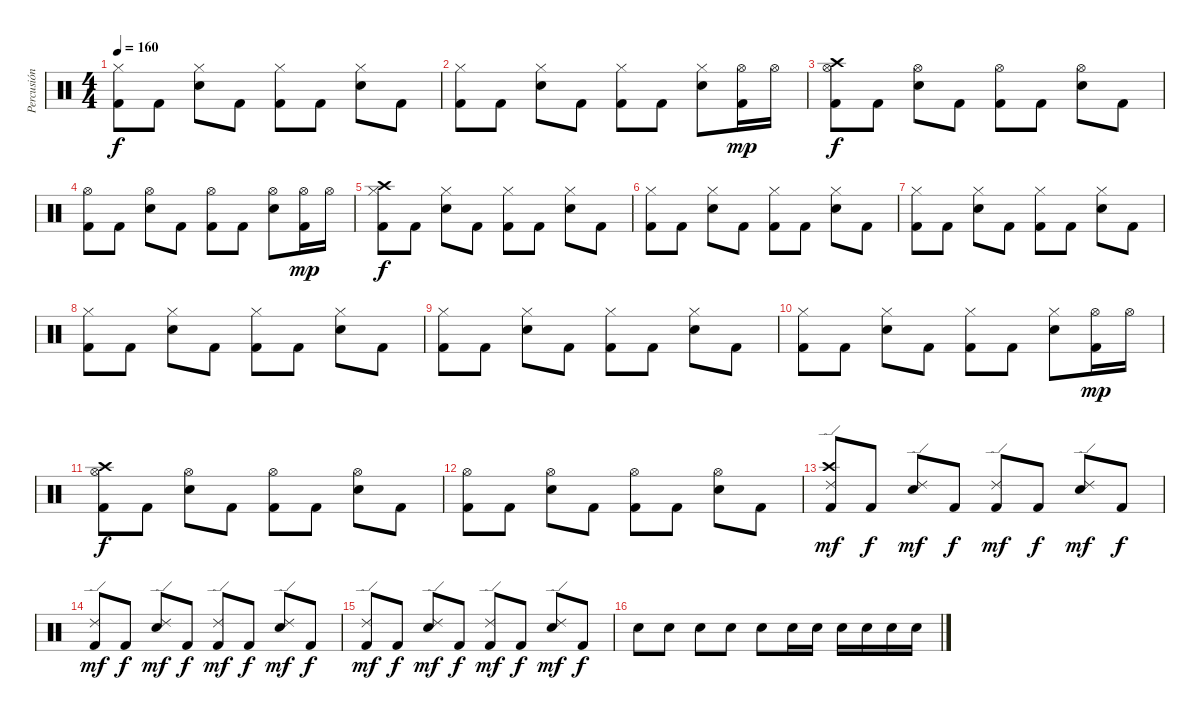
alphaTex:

\track ("Percusión" "Percusión") {instrument percussion}
\staff {score}
\articulation defaults
\ts (4 4)
\tempo 160
\clef neutral
\ks c
("Hi-Hat (closed)" "Kick (hit) 2").8{dy f} "Kick (hit) 2".8 ("Hi-Hat (closed)" "Snare (hit) 2").8 "Kick (hit) 2".8 ("Hi-Hat (closed)" "Kick (hit) 2").8 "Kick (hit) 2".8 ("Hi-Hat (closed)" "Snare (hit) 2").8 "Kick (hit) 2".8 |
("Hi-Hat (closed)" "Kick (hit) 2").8 "Kick (hit) 2".8 ("Hi-Hat (closed)" "Snare (hit) 2").8 "Kick (hit) 2".8 ("Hi-Hat (closed)" "Kick (hit) 2").8 "Kick (hit) 2".8 ("Hi-Hat (closed)" "Snare (hit) 2").8 ("Hi-Hat (open)" "Kick (hit) 2").16{dy mp} "Hi-Hat (open)".16 |
("Crash high (hit)" "Hi-Hat (open)" "Kick (hit) 2").8{dy f} "Kick (hit) 2".8 ("Hi-Hat (open)" "Snare (hit) 2").8 "Kick (hit) 2".8 ("Hi-Hat (open)" "Kick (hit) 2").8 "Kick (hit) 2".8 ("Hi-Hat (open)" "Snare (hit) 2").8 "Kick (hit) 2".8 |
("Hi-Hat (open)" "Kick (hit) 2").8 "Kick (hit) 2".8 ("Hi-Hat (open)" "Snare (hit) 2").8 "Kick (hit) 2".8 ("Hi-Hat (open)" "Kick (hit) 2").8 "Kick (hit) 2".8 ("Hi-Hat (open)" "Snare (hit) 2").8 ("Hi-Hat (open)" "Kick (hit) 2").16{dy mp} "Hi-Hat (open)".16 |
("Crash high (hit)" "Hi-Hat (closed)" "Kick (hit) 2").8{dy f} "Kick (hit) 2".8 ("Hi-Hat (closed)" "Snare (hit) 2").8 "Kick (hit) 2".8 ("Hi-Hat (closed)" "Kick (hit) 2").8 "Kick (hit) 2".8 ("Hi-Hat (closed)" "Snare (hit) 2").8 "Kick (hit) 2".8 |
("Hi-Hat (closed)" "Kick (hit) 2").8 "Kick (hit) 2".8 ("Hi-Hat (closed)" "Snare (hit) 2").8 "Kick (hit) 2".8 ("Hi-Hat (closed)" "Kick (hit) 2").8 "Kick (hit) 2".8 ("Hi-Hat (closed)" "Snare (hit) 2").8 "Kick (hit) 2".8 |
("Hi-Hat (closed)" "Kick (hit) 2").8 "Kick (hit) 2".8 ("Hi-Hat (closed)" "Snare (hit) 2").8 "Kick (hit) 2".8 ("Hi-Hat (closed)" "Kick (hit) 2").8 "Kick (hit) 2".8 ("Hi-Hat (closed)" "Snare (hit) 2").8 "Kick (hit) 2".8 |
("Hi-Hat (closed)" "Kick (hit) 2").8 "Kick (hit) 2".8 ("Hi-Hat (closed)" "Snare (hit) 2").8 "Kick (hit) 2".8 ("Hi-Hat (closed)" "Kick (hit) 2").8 "Kick (hit) 2".8 ("Hi-Hat (closed)" "Snare (hit) 2").8 "Kick (hit) 2".8 |
("Hi-Hat (closed)" "Kick (hit) 2").8 "Kick (hit) 2".8 ("Hi-Hat (closed)" "Snare (hit) 2").8 "Kick (hit) 2".8 ("Hi-Hat (closed)" "Kick (hit) 2").8 "Kick (hit) 2".8 ("Hi-Hat (closed)" "Snare (hit) 2").8 "Kick (hit) 2".8 |
("Hi-Hat (closed)" "Kick (hit) 2").8 "Kick (hit) 2".8 ("Hi-Hat (closed)" "Snare (hit) 2").8 "Kick (hit) 2".8 ("Hi-Hat (closed)" "Kick (hit) 2").8 "Kick (hit) 2".8 ("Hi-Hat (closed)" "Snare (hit) 2").8 ("Hi-Hat (open)" "Kick (hit) 2").16{dy mp} "Hi-Hat (open)".16 |
("Crash high (hit)" "Hi-Hat (open)" "Kick (hit) 2").8{dy f} "Kick (hit) 2".8 ("Hi-Hat (open)" "Snare (hit) 2").8 "Kick (hit) 2".8 ("Hi-Hat (open)" "Kick (hit) 2").8 "Kick (hit) 2".8 ("Hi-Hat (open)" "Snare (hit) 2").8 "Kick (hit) 2".8 |
("Hi-Hat (open)" "Kick (hit) 2").8 "Kick (hit) 2".8 ("Hi-Hat (open)" "Snare (hit) 2").8 "Kick (hit) 2".8 ("Hi-Hat (open)" "Kick (hit) 2").8 "Kick (hit) 2".8 ("Hi-Hat (open)" "Snare (hit) 2").8 "Kick (hit) 2".8 |
("Crash high (hit)" "Ride (edge) 2" "Kick (hit) 2").8{dy mf} "Kick (hit) 2".8{dy f} ("Ride (edge) 2" "Snare (hit) 2").8{dy mf} "Kick (hit) 2".8{dy f} ("Ride (edge) 2" "Kick (hit) 2").8{dy mf} "Kick (hit) 2".8{dy f} ("Ride (edge) 2" "Snare (hit) 2").8{dy mf} "Kick (hit) 2".8{dy f} |
("Ride (edge) 2" "Kick (hit) 2").8{dy mf} "Kick (hit) 2".8{dy f} ("Ride (edge) 2" "Snare (hit) 2").8{dy mf} "Kick (hit) 2".8{dy f} ("Ride (edge) 2" "Kick (hit) 2").8{dy mf} "Kick (hit) 2".8{dy f} ("Ride (edge) 2" "Snare (hit) 2").8{dy mf} "Kick (hit) 2".8{dy f} |
("Ride (edge) 2" "Kick (hit) 2").8{dy mf} "Kick (hit) 2".8{dy f} ("Ride (edge) 2" "Snare (hit) 2").8{dy mf} "Kick (hit) 2".8{dy f} ("Ride (edge) 2" "Kick (hit) 2").8{dy mf} "Kick (hit) 2".8{dy f} ("Ride (edge) 2" "Snare (hit) 2").8{dy mf} "Kick (hit) 2".8{dy f} |
"Snare (hit) 2".8 "Snare (hit) 2".8 "Snare (hit) 2".8 "Snare (hit) 2".8 "Snare (hit) 2".8 "Snare (hit) 2".16 "Snare (hit) 2".16 "Snare (hit) 2".16 "Snare (hit) 2".16 "Snare (hit) 2".16 "Snare (hit) 2".16
